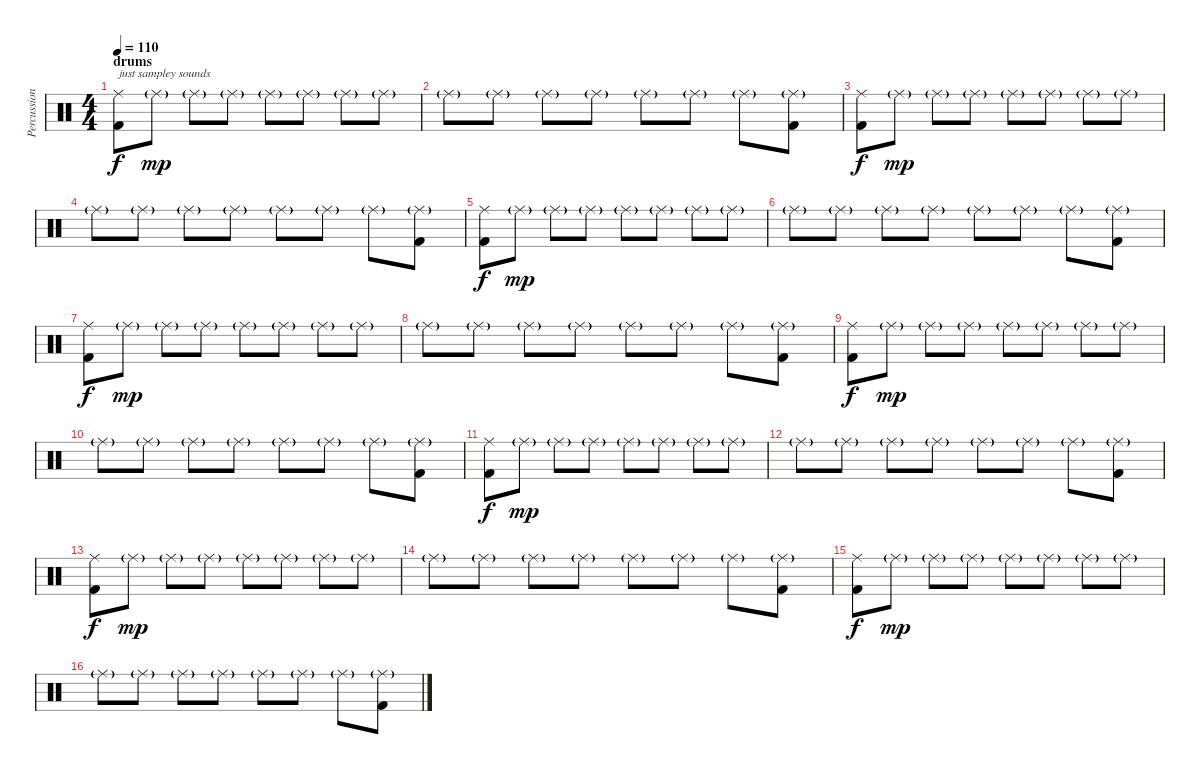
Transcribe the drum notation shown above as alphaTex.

\track ("Percussion" "Percussion") {instrument percussion}
\staff {score}
\articulation defaults
\ts (4 4)
\section ("" "drums")
\tempo 110
\clef neutral
\ks c
("Ride (middle)" "Kick (hit) 2").8{txt "just sampley sounds" dy f} "Ride (middle)"{g}.8{dy mp} "Ride (middle)"{g}.8 "Ride (middle)"{g}.8 "Ride (middle)"{g}.8 "Ride (middle)"{g}.8 "Ride (middle)"{g}.8 "Ride (middle)"{g}.8 |
"Ride (middle)"{g}.8 "Ride (middle)"{g}.8 "Ride (middle)"{g}.8 "Ride (middle)"{g}.8 "Ride (middle)"{g}.8 "Ride (middle)"{g}.8 "Ride (middle)"{g}.8 ("Ride (middle)"{g} "Kick (hit) 2").8 |
("Ride (middle)" "Kick (hit) 2").8{dy f} "Ride (middle)"{g}.8{dy mp} "Ride (middle)"{g}.8 "Ride (middle)"{g}.8 "Ride (middle)"{g}.8 "Ride (middle)"{g}.8 "Ride (middle)"{g}.8 "Ride (middle)"{g}.8 |
"Ride (middle)"{g}.8 "Ride (middle)"{g}.8 "Ride (middle)"{g}.8 "Ride (middle)"{g}.8 "Ride (middle)"{g}.8 "Ride (middle)"{g}.8 "Ride (middle)"{g}.8 ("Ride (middle)"{g} "Kick (hit) 2").8 |
("Ride (middle)" "Kick (hit) 2").8{dy f} "Ride (middle)"{g}.8{dy mp} "Ride (middle)"{g}.8 "Ride (middle)"{g}.8 "Ride (middle)"{g}.8 "Ride (middle)"{g}.8 "Ride (middle)"{g}.8 "Ride (middle)"{g}.8 |
"Ride (middle)"{g}.8 "Ride (middle)"{g}.8 "Ride (middle)"{g}.8 "Ride (middle)"{g}.8 "Ride (middle)"{g}.8 "Ride (middle)"{g}.8 "Ride (middle)"{g}.8 ("Ride (middle)"{g} "Kick (hit) 2").8 |
("Ride (middle)" "Kick (hit) 2").8{dy f} "Ride (middle)"{g}.8{dy mp} "Ride (middle)"{g}.8 "Ride (middle)"{g}.8 "Ride (middle)"{g}.8 "Ride (middle)"{g}.8 "Ride (middle)"{g}.8 "Ride (middle)"{g}.8 |
"Ride (middle)"{g}.8 "Ride (middle)"{g}.8 "Ride (middle)"{g}.8 "Ride (middle)"{g}.8 "Ride (middle)"{g}.8 "Ride (middle)"{g}.8 "Ride (middle)"{g}.8 ("Ride (middle)"{g} "Kick (hit) 2").8 |
("Ride (middle)" "Kick (hit) 2").8{dy f} "Ride (middle)"{g}.8{dy mp} "Ride (middle)"{g}.8 "Ride (middle)"{g}.8 "Ride (middle)"{g}.8 "Ride (middle)"{g}.8 "Ride (middle)"{g}.8 "Ride (middle)"{g}.8 |
"Ride (middle)"{g}.8 "Ride (middle)"{g}.8 "Ride (middle)"{g}.8 "Ride (middle)"{g}.8 "Ride (middle)"{g}.8 "Ride (middle)"{g}.8 "Ride (middle)"{g}.8 ("Ride (middle)"{g} "Kick (hit) 2").8 |
("Ride (middle)" "Kick (hit) 2").8{dy f} "Ride (middle)"{g}.8{dy mp} "Ride (middle)"{g}.8 "Ride (middle)"{g}.8 "Ride (middle)"{g}.8 "Ride (middle)"{g}.8 "Ride (middle)"{g}.8 "Ride (middle)"{g}.8 |
"Ride (middle)"{g}.8 "Ride (middle)"{g}.8 "Ride (middle)"{g}.8 "Ride (middle)"{g}.8 "Ride (middle)"{g}.8 "Ride (middle)"{g}.8 "Ride (middle)"{g}.8 ("Ride (middle)"{g} "Kick (hit) 2").8 |
("Ride (middle)" "Kick (hit) 2").8{dy f} "Ride (middle)"{g}.8{dy mp} "Ride (middle)"{g}.8 "Ride (middle)"{g}.8 "Ride (middle)"{g}.8 "Ride (middle)"{g}.8 "Ride (middle)"{g}.8 "Ride (middle)"{g}.8 |
"Ride (middle)"{g}.8 "Ride (middle)"{g}.8 "Ride (middle)"{g}.8 "Ride (middle)"{g}.8 "Ride (middle)"{g}.8 "Ride (middle)"{g}.8 "Ride (middle)"{g}.8 ("Ride (middle)"{g} "Kick (hit) 2").8 |
("Ride (middle)" "Kick (hit) 2").8{dy f} "Ride (middle)"{g}.8{dy mp} "Ride (middle)"{g}.8 "Ride (middle)"{g}.8 "Ride (middle)"{g}.8 "Ride (middle)"{g}.8 "Ride (middle)"{g}.8 "Ride (middle)"{g}.8 |
"Ride (middle)"{g}.8 "Ride (middle)"{g}.8 "Ride (middle)"{g}.8 "Ride (middle)"{g}.8 "Ride (middle)"{g}.8 "Ride (middle)"{g}.8 "Ride (middle)"{g}.8 ("Ride (middle)"{g} "Kick (hit) 2").8
